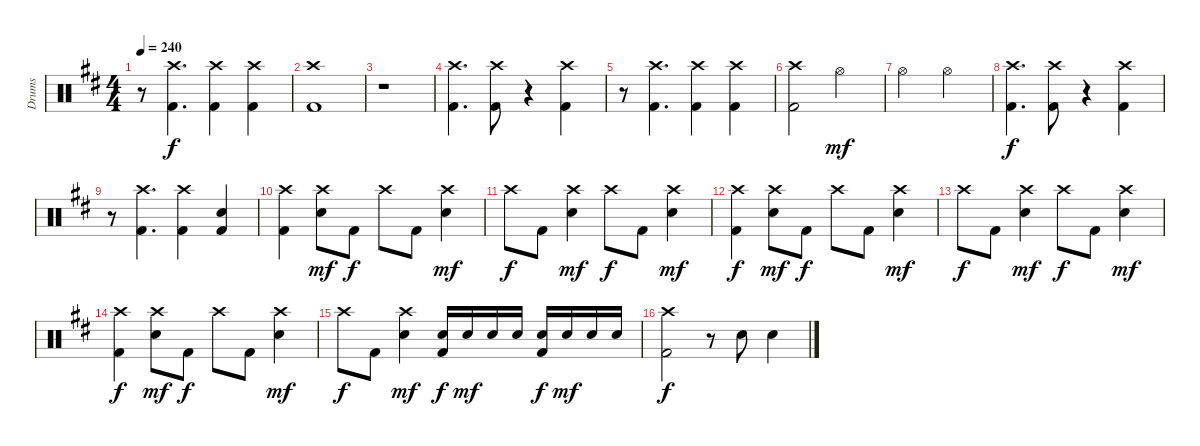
\track ("Drums" "Drums") {instrument percussion}
\staff {score}
\articulation defaults
\ts (4 4)
\tempo 240
\clef neutral
\ks d
r.8{dy f} ("Crash high (hit)" "Kick (hit) 2").4{d} ("Crash high (hit)" "Kick (hit) 2").4 ("Crash high (hit)" "Kick (hit) 2").4 |
("Crash high (hit)" "Kick (hit) 2").1 |
r.1 |
("Crash high (hit)" "Kick (hit) 2").4{d} ("Crash high (hit)" "Kick (hit) 2").8 r.4 ("Crash high (hit)" "Kick (hit) 2").4 |
r.8 ("Crash high (hit)" "Kick (hit) 2").4{d} ("Crash high (hit)" "Kick (hit) 2").4 ("Crash high (hit)" "Kick (hit) 2").4 |
("Crash high (hit)" "Kick (hit) 2").2 "Hi-Hat (open)".2{dy mf} |
"Hi-Hat (open)".2 "Hi-Hat (open)".2 |
("Crash high (hit)" "Kick (hit) 2").4{d dy f} ("Crash high (hit)" "Kick (hit) 2").8 r.4 ("Crash high (hit)" "Kick (hit) 2").4 |
r.8 ("Crash high (hit)" "Kick (hit) 2").4{d} ("Crash high (hit)" "Kick (hit) 2").4 ("Electric Snare (hit)" "Kick (hit) 2").4 |
("Crash high (hit)" "Kick (hit) 2").4 ("Crash high (hit)" "Electric Snare (hit)").8{dy mf} "Kick (hit) 2".8{dy f} "Crash high (hit)".8 "Kick (hit) 2".8 ("Crash high (hit)" "Electric Snare (hit)").4{dy mf} |
"Crash high (hit)".8{dy f} "Kick (hit) 2".8 ("Crash high (hit)" "Electric Snare (hit)").4{dy mf} "Crash high (hit)".8{dy f} "Kick (hit) 2".8 ("Crash high (hit)" "Electric Snare (hit)").4{dy mf} |
("Crash high (hit)" "Kick (hit) 2").4{dy f} ("Crash high (hit)" "Electric Snare (hit)").8{dy mf} "Kick (hit) 2".8{dy f} "Crash high (hit)".8 "Kick (hit) 2".8 ("Crash high (hit)" "Electric Snare (hit)").4{dy mf} |
"Crash high (hit)".8{dy f} "Kick (hit) 2".8 ("Crash high (hit)" "Electric Snare (hit)").4{dy mf} "Crash high (hit)".8{dy f} "Kick (hit) 2".8 ("Crash high (hit)" "Electric Snare (hit)").4{dy mf} |
("Crash high (hit)" "Kick (hit) 2").4{dy f} ("Crash high (hit)" "Electric Snare (hit)").8{dy mf} "Kick (hit) 2".8{dy f} "Crash high (hit)".8 "Kick (hit) 2".8 ("Crash high (hit)" "Electric Snare (hit)").4{dy mf} |
"Crash high (hit)".8{dy f} "Kick (hit) 2".8 ("Crash high (hit)" "Electric Snare (hit)").4{dy mf} ("Electric Snare (hit)" "Kick (hit) 2").16{dy f} "Electric Snare (hit)".16{dy mf} "Electric Snare (hit)".16 "Electric Snare (hit)".16 ("Electric Snare (hit)" "Kick (hit) 2").16{dy f} "Electric Snare (hit)".16{dy mf} "Electric Snare (hit)".16 "Electric Snare (hit)".16 |
("Crash high (hit)" "Kick (hit) 2").2{dy f} r.8 "Electric Snare (hit)".8 "Electric Snare (hit)".4
